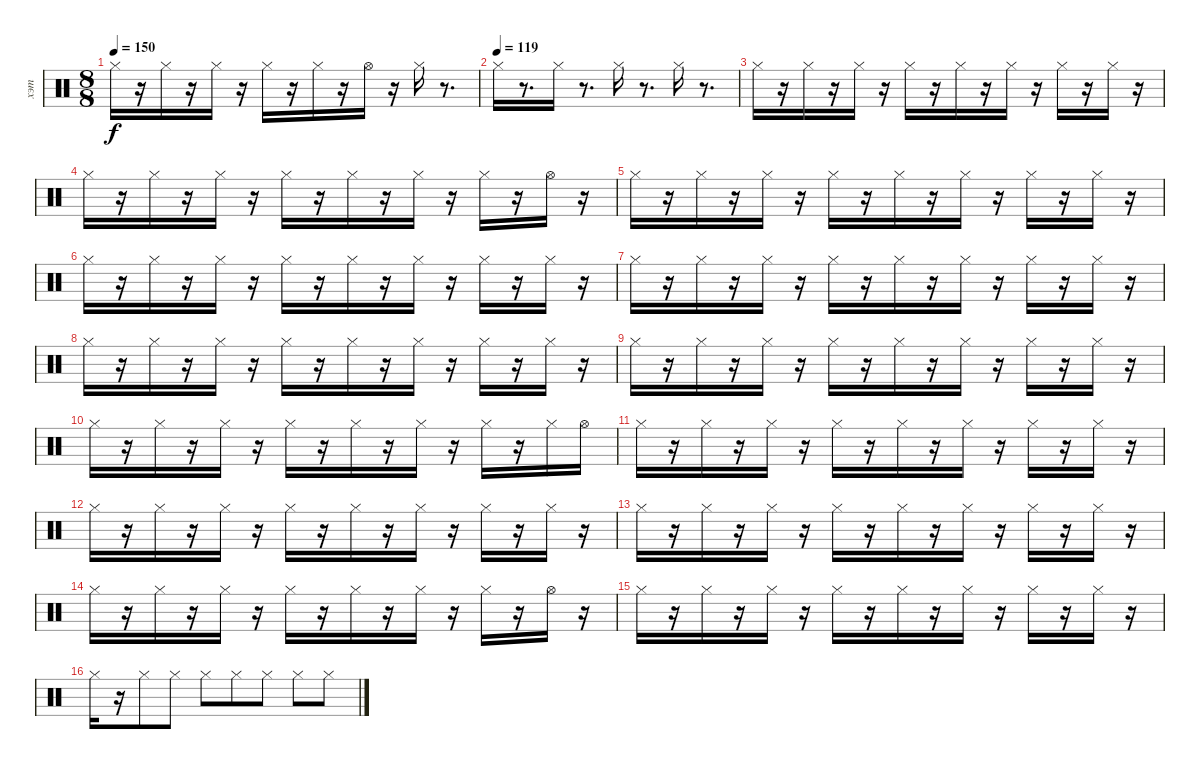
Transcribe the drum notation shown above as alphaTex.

\track ("хэт" "хэт") {instrument percussion}
\staff {score}
\articulation defaults
\ts (8 8)
\tempo 150
\clef neutral
\ks c "Hi-Hat (closed)".16{dy f}
r.16 "Hi-Hat (closed)".16 r.16 "Hi-Hat (closed)".16 r.16 "Hi-Hat (closed)".16 r.16 "Hi-Hat (closed)".16 r.16 "Hi-Hat (open)".16 r.16 "Hi-Hat (closed)".16 r.8{d} |
\tempo (119)
"Hi-Hat (closed)".16 r.8{d} "Hi-Hat (closed)".16 r.8{d} "Hi-Hat (closed)".16 r.8{d} "Hi-Hat (closed)".16 r.8{d} |
"Hi-Hat (closed)".16 r.16 "Hi-Hat (closed)".16 r.16 "Hi-Hat (closed)".16 r.16 "Hi-Hat (closed)".16 r.16 "Hi-Hat (closed)".16 r.16 "Hi-Hat (closed)".16 r.16 "Hi-Hat (closed)".16 r.16 "Hi-Hat (closed)".16 r.16 |
"Hi-Hat (closed)".16 r.16 "Hi-Hat (closed)".16 r.16 "Hi-Hat (closed)".16 r.16 "Hi-Hat (closed)".16 r.16 "Hi-Hat (closed)".16 r.16 "Hi-Hat (closed)".16 r.16 "Hi-Hat (closed)".16 r.16 "Hi-Hat (open)".16 r.16 |
"Hi-Hat (closed)".16 r.16 "Hi-Hat (closed)".16 r.16 "Hi-Hat (closed)".16 r.16 "Hi-Hat (closed)".16 r.16 "Hi-Hat (closed)".16 r.16 "Hi-Hat (closed)".16 r.16 "Hi-Hat (closed)".16 r.16 "Hi-Hat (closed)".16 r.16 |
"Hi-Hat (closed)".16 r.16 "Hi-Hat (closed)".16 r.16 "Hi-Hat (closed)".16 r.16 "Hi-Hat (closed)".16 r.16 "Hi-Hat (closed)".16 r.16 "Hi-Hat (closed)".16 r.16 "Hi-Hat (closed)".16 r.16 "Hi-Hat (closed)".16 r.16 |
"Hi-Hat (closed)".16 r.16 "Hi-Hat (closed)".16 r.16 "Hi-Hat (closed)".16 r.16 "Hi-Hat (closed)".16 r.16 "Hi-Hat (closed)".16 r.16 "Hi-Hat (closed)".16 r.16 "Hi-Hat (closed)".16 r.16 "Hi-Hat (closed)".16 r.16 |
"Hi-Hat (closed)".16 r.16 "Hi-Hat (closed)".16 r.16 "Hi-Hat (closed)".16 r.16 "Hi-Hat (closed)".16 r.16 "Hi-Hat (closed)".16 r.16 "Hi-Hat (closed)".16 r.16 "Hi-Hat (closed)".16 r.16 "Hi-Hat (closed)".16 r.16 |
"Hi-Hat (closed)".16 r.16 "Hi-Hat (closed)".16 r.16 "Hi-Hat (closed)".16 r.16 "Hi-Hat (closed)".16 r.16 "Hi-Hat (closed)".16 r.16 "Hi-Hat (closed)".16 r.16 "Hi-Hat (closed)".16 r.16 "Hi-Hat (closed)".16 r.16 |
"Hi-Hat (closed)".16 r.16 "Hi-Hat (closed)".16 r.16 "Hi-Hat (closed)".16 r.16 "Hi-Hat (closed)".16 r.16 "Hi-Hat (closed)".16 r.16 "Hi-Hat (closed)".16 r.16 "Hi-Hat (closed)".16 r.16 "Hi-Hat (closed)".16 "Hi-Hat (open)".16 |
"Hi-Hat (closed)".16 r.16 "Hi-Hat (closed)".16 r.16 "Hi-Hat (closed)".16 r.16 "Hi-Hat (closed)".16 r.16 "Hi-Hat (closed)".16 r.16 "Hi-Hat (closed)".16 r.16 "Hi-Hat (closed)".16 r.16 "Hi-Hat (closed)".16 r.16 |
"Hi-Hat (closed)".16 r.16 "Hi-Hat (closed)".16 r.16 "Hi-Hat (closed)".16 r.16 "Hi-Hat (closed)".16 r.16 "Hi-Hat (closed)".16 r.16 "Hi-Hat (closed)".16 r.16 "Hi-Hat (closed)".16 r.16 "Hi-Hat (closed)".16 r.16 |
"Hi-Hat (closed)".16 r.16 "Hi-Hat (closed)".16 r.16 "Hi-Hat (closed)".16 r.16 "Hi-Hat (closed)".16 r.16 "Hi-Hat (closed)".16 r.16 "Hi-Hat (closed)".16 r.16 "Hi-Hat (closed)".16 r.16 "Hi-Hat (closed)".16 r.16 |
"Hi-Hat (closed)".16 r.16 "Hi-Hat (closed)".16 r.16 "Hi-Hat (closed)".16 r.16 "Hi-Hat (closed)".16 r.16 "Hi-Hat (closed)".16 r.16 "Hi-Hat (closed)".16 r.16 "Hi-Hat (closed)".16 r.16 "Hi-Hat (open)".16 r.16 |
"Hi-Hat (closed)".16 r.16 "Hi-Hat (closed)".16 r.16 "Hi-Hat (closed)".16 r.16 "Hi-Hat (closed)".16 r.16 "Hi-Hat (closed)".16 r.16 "Hi-Hat (closed)".16 r.16 "Hi-Hat (closed)".16 r.16 "Hi-Hat (closed)".16 r.16 |
"Hi-Hat (closed)".16 r.16 "Hi-Hat (closed)".8 "Hi-Hat (closed)".8 "Hi-Hat (closed)".8 "Hi-Hat (closed)".8 "Hi-Hat (closed)".8 "Hi-Hat (closed)".8 "Hi-Hat (closed)".8
